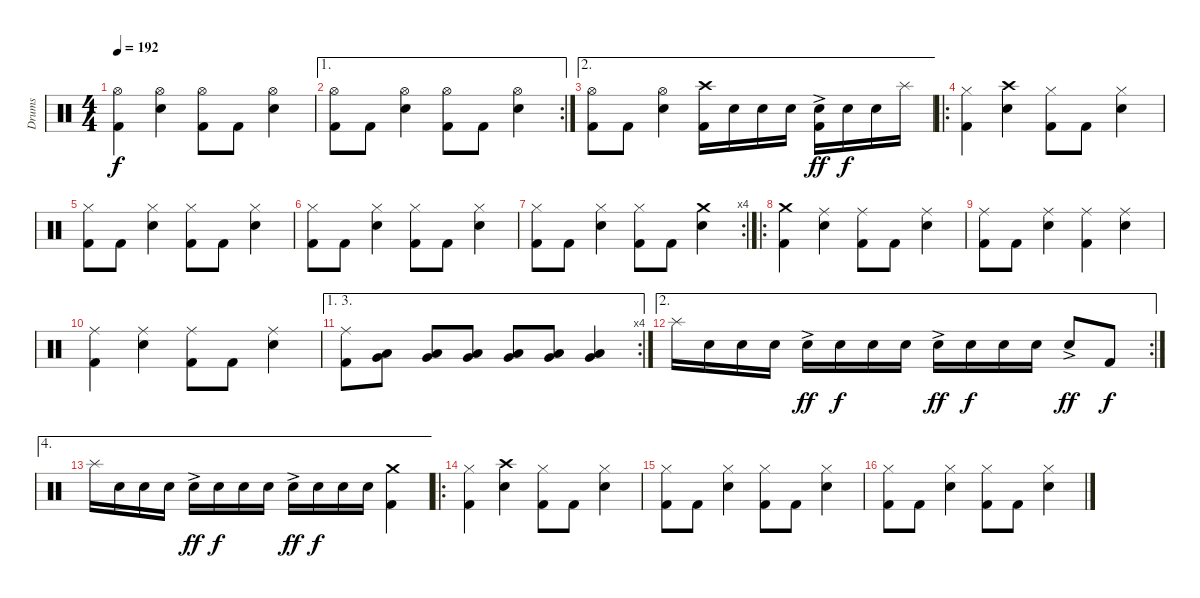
\track ("Drums" "Drums") {instrument percussion}
\staff {score}
\articulation defaults
\ts (4 4)
\tempo 192
\clef neutral
\ks c
("Hi-Hat (open)" "Kick (hit) 2").4{dy f} ("Hi-Hat (open)" "Electric Snare (hit)").4 ("Hi-Hat (open)" "Kick (hit) 2").8 "Kick (hit) 2".8 ("Hi-Hat (open)" "Electric Snare (hit)").4 |
\ae 1
\rc 2
("Hi-Hat (open)" "Kick (hit) 2").8 "Kick (hit) 2".8 ("Hi-Hat (open)" "Electric Snare (hit)").4 ("Hi-Hat (open)" "Kick (hit) 2").8 "Kick (hit) 2".8 ("Hi-Hat (open)" "Electric Snare (hit)").4 |
\ae 2
("Hi-Hat (open)" "Kick (hit) 2").8 "Kick (hit) 2".8 ("Hi-Hat (open)" "Electric Snare (hit)").4 ("Crash high (hit)" "Kick (hit) 2").16 "Electric Snare (hit)".16 "Electric Snare (hit)".16 "Electric Snare (hit)".16 ("Electric Snare (hit)"{ac} "Kick (hit) 2").16{dy ff} "Electric Snare (hit)".16{dy f} "Electric Snare (hit)".16 "Splash (hit)".16 |
\ro
("Hi-Hat (closed)" "Kick (hit) 2").4 ("Crash high (hit)" "Electric Snare (hit)").4 ("Hi-Hat (closed)" "Kick (hit) 2").8 "Kick (hit) 2".8 ("Hi-Hat (closed)" "Electric Snare (hit)").4 |
("Hi-Hat (closed)" "Kick (hit) 2").8 "Kick (hit) 2".8 ("Hi-Hat (closed)" "Electric Snare (hit)").4 ("Hi-Hat (closed)" "Kick (hit) 2").8 "Kick (hit) 2".8 ("Hi-Hat (closed)" "Electric Snare (hit)").4 |
("Hi-Hat (closed)" "Kick (hit) 2").8 "Kick (hit) 2".8 ("Hi-Hat (closed)" "Electric Snare (hit)").4 ("Hi-Hat (closed)" "Kick (hit) 2").8 "Kick (hit) 2".8 ("Hi-Hat (closed)" "Electric Snare (hit)").4 |
\rc 4
("Hi-Hat (closed)" "Kick (hit) 2").8 "Kick (hit) 2".8 ("Hi-Hat (closed)" "Electric Snare (hit)").4 ("Hi-Hat (closed)" "Kick (hit) 2").8 "Kick (hit) 2".8 ("Crash medium (hit)" "Electric Snare (hit)").4 |
\ro
("Crash medium (hit)" "Kick (hit) 2").4 ("Ride (middle)" "Electric Snare (hit)").4 ("Ride (middle)" "Kick (hit) 2").8 "Kick (hit) 2".8 ("Ride (middle)" "Electric Snare (hit)").4 |
("Ride (middle)" "Kick (hit) 2").8 "Kick (hit) 2".8 ("Ride (middle)" "Electric Snare (hit)").4 ("Ride (middle)" "Kick (hit) 2").4 ("Ride (middle)" "Electric Snare (hit)").4 |
("Ride (middle)" "Kick (hit) 2").4 ("Ride (middle)" "Electric Snare (hit)").4 ("Ride (middle)" "Kick (hit) 2").8 "Kick (hit) 2".8 ("Ride (middle)" "Electric Snare (hit)").4 |
\ae (1 3)
\rc 4
("Ride (middle)" "Kick (hit) 2").8 ("Very Low Tom (hit)" "Low Floor Tom (hit)").8 ("Very Low Tom (hit)" "Low Floor Tom (hit)").8 ("Very Low Tom (hit)" "Low Floor Tom (hit)").8 ("Very Low Tom (hit)" "Low Floor Tom (hit)").8 ("Very Low Tom (hit)" "Low Floor Tom (hit)").8 ("Very Low Tom (hit)" "Low Floor Tom (hit)").4 |
\ae 2
\rc 2 "Splash (hit)".16 "Electric Snare (hit)".16 "Electric Snare (hit)".16 "Electric Snare (hit)".16 "Electric Snare (hit)"{ac}.16{dy ff} "Electric Snare (hit)".16{dy f} "Electric Snare (hit)".16 "Electric Snare (hit)".16 "Electric Snare (hit)"{ac}.16{dy ff} "Electric Snare (hit)".16{dy f} "Electric Snare (hit)".16 "Electric Snare (hit)".16 "Electric Snare (hit)"{ac}.8{dy ff} "Kick (hit) 2".8{dy f}
|
\ae 4 "Splash (hit)".16 "Electric Snare (hit)".16 "Electric Snare (hit)".16 "Electric Snare (hit)".16 "Electric Snare (hit)"{ac}.16{dy ff} "Electric Snare (hit)".16{dy f} "Electric Snare (hit)".16 "Electric Snare (hit)".16 "Electric Snare (hit)"{ac}.16{dy ff} "Electric Snare (hit)".16{dy f} "Electric Snare (hit)".16 "Electric Snare (hit)".16
("Crash medium (hit)" "Kick (hit) 2").4 |
\ro
("Hi-Hat (closed)" "Kick (hit) 2").4 ("Crash high (hit)" "Electric Snare (hit)").4 ("Hi-Hat (closed)" "Kick (hit) 2").8 "Kick (hit) 2".8 ("Hi-Hat (closed)" "Electric Snare (hit)").4 |
("Hi-Hat (closed)" "Kick (hit) 2").8 "Kick (hit) 2".8 ("Hi-Hat (closed)" "Electric Snare (hit)").4 ("Hi-Hat (closed)" "Kick (hit) 2").8 "Kick (hit) 2".8 ("Hi-Hat (closed)" "Electric Snare (hit)").4 |
("Hi-Hat (closed)" "Kick (hit) 2").8 "Kick (hit) 2".8 ("Hi-Hat (closed)" "Electric Snare (hit)").4 ("Hi-Hat (closed)" "Kick (hit) 2").8 "Kick (hit) 2".8 ("Hi-Hat (closed)" "Electric Snare (hit)").4
